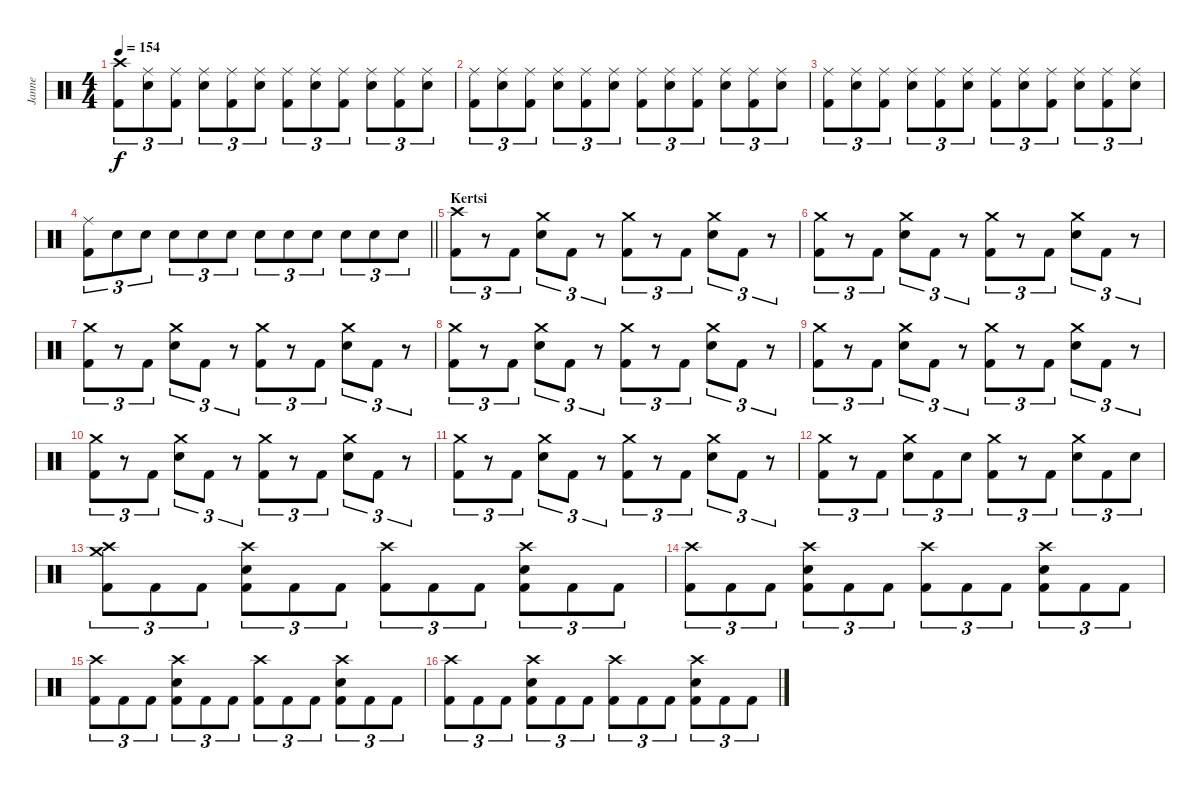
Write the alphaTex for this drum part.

\track ("Janne" "Janne") {instrument percussion}
\staff {score}
\articulation defaults
\ts (4 4)
\tempo 154
\clef neutral
\ks c
("Crash high (hit)" "Kick (hit) 2").8{tu (3 2) dy f} ("Ride (middle)" "Electric Snare (hit)").8{tu (3 2)} ("Ride (middle)" "Kick (hit) 2").8{tu (3 2)} ("Ride (middle)" "Electric Snare (hit)").8{tu (3 2)} ("Ride (middle)" "Kick (hit) 2").8{tu (3 2)} ("Ride (middle)" "Electric Snare (hit)").8{tu (3 2)} ("Ride (middle)" "Kick (hit) 2").8{tu (3 2)} ("Ride (middle)" "Electric Snare (hit)").8{tu (3 2)} ("Ride (middle)" "Kick (hit) 2").8{tu (3 2)} ("Ride (middle)" "Electric Snare (hit)").8{tu (3 2)} ("Ride (middle)" "Kick (hit) 2").8{tu (3 2)} ("Ride (middle)" "Electric Snare (hit)").8{tu (3 2)} |
("Ride (middle)" "Kick (hit) 2").8{tu (3 2)} ("Ride (middle)" "Electric Snare (hit)").8{tu (3 2)} ("Ride (middle)" "Kick (hit) 2").8{tu (3 2)} ("Ride (middle)" "Electric Snare (hit)").8{tu (3 2)} ("Ride (middle)" "Kick (hit) 2").8{tu (3 2)} ("Ride (middle)" "Electric Snare (hit)").8{tu (3 2)} ("Ride (middle)" "Kick (hit) 2").8{tu (3 2)} ("Ride (middle)" "Electric Snare (hit)").8{tu (3 2)} ("Ride (middle)" "Kick (hit) 2").8{tu (3 2)} ("Ride (middle)" "Electric Snare (hit)").8{tu (3 2)} ("Ride (middle)" "Kick (hit) 2").8{tu (3 2)} ("Ride (middle)" "Electric Snare (hit)").8{tu (3 2)} |
("Ride (middle)" "Kick (hit) 2").8{tu (3 2)} ("Ride (middle)" "Electric Snare (hit)").8{tu (3 2)} ("Ride (middle)" "Kick (hit) 2").8{tu (3 2)} ("Ride (middle)" "Electric Snare (hit)").8{tu (3 2)} ("Ride (middle)" "Kick (hit) 2").8{tu (3 2)} ("Ride (middle)" "Electric Snare (hit)").8{tu (3 2)} ("Ride (middle)" "Kick (hit) 2").8{tu (3 2)} ("Ride (middle)" "Electric Snare (hit)").8{tu (3 2)} ("Ride (middle)" "Kick (hit) 2").8{tu (3 2)} ("Ride (middle)" "Electric Snare (hit)").8{tu (3 2)} ("Ride (middle)" "Kick (hit) 2").8{tu (3 2)} ("Ride (middle)" "Electric Snare (hit)").8{tu (3 2)} |
\barLineRight lightlight
("Ride (middle)" "Kick (hit) 2").8{tu (3 2)} "Electric Snare (hit)".8{tu (3 2)} "Electric Snare (hit)".8{tu (3 2)} "Electric Snare (hit)".8{tu (3 2)} "Electric Snare (hit)".8{tu (3 2)} "Electric Snare (hit)".8{tu (3 2)} "Electric Snare (hit)".8{tu (3 2)} "Electric Snare (hit)".8{tu (3 2)} "Electric Snare (hit)".8{tu (3 2)} "Electric Snare (hit)".8{tu (3 2)} "Electric Snare (hit)".8{tu (3 2)} "Electric Snare (hit)".8{tu (3 2)} |
\section ("" "Kertsi")
("Crash high (hit)" "Kick (hit) 2").8{tu (3 2)} r.8{tu (3 2)} "Kick (hit) 2".8{tu (3 2)} ("Crash medium (hit)" "Electric Snare (hit)").8{tu (3 2)} "Kick (hit) 2".8{tu (3 2)} r.8{tu (3 2)} ("Crash medium (hit)" "Kick (hit) 2").8{tu (3 2)} r.8{tu (3 2)} "Kick (hit) 2".8{tu (3 2)} ("Crash medium (hit)" "Electric Snare (hit)").8{tu (3 2)} "Kick (hit) 2".8{tu (3 2)} r.8{tu (3 2)} |
("Crash medium (hit)" "Kick (hit) 2").8{tu (3 2)} r.8{tu (3 2)} "Kick (hit) 2".8{tu (3 2)} ("Crash medium (hit)" "Electric Snare (hit)").8{tu (3 2)} "Kick (hit) 2".8{tu (3 2)} r.8{tu (3 2)} ("Crash medium (hit)" "Kick (hit) 2").8{tu (3 2)} r.8{tu (3 2)} "Kick (hit) 2".8{tu (3 2)} ("Crash medium (hit)" "Electric Snare (hit)").8{tu (3 2)} "Kick (hit) 2".8{tu (3 2)} r.8{tu (3 2)} |
("Crash medium (hit)" "Kick (hit) 2").8{tu (3 2)} r.8{tu (3 2)} "Kick (hit) 2".8{tu (3 2)} ("Crash medium (hit)" "Electric Snare (hit)").8{tu (3 2)} "Kick (hit) 2".8{tu (3 2)} r.8{tu (3 2)} ("Crash medium (hit)" "Kick (hit) 2").8{tu (3 2)} r.8{tu (3 2)} "Kick (hit) 2".8{tu (3 2)} ("Crash medium (hit)" "Electric Snare (hit)").8{tu (3 2)} "Kick (hit) 2".8{tu (3 2)} r.8{tu (3 2)} |
("Crash medium (hit)" "Kick (hit) 2").8{tu (3 2)} r.8{tu (3 2)} "Kick (hit) 2".8{tu (3 2)} ("Crash medium (hit)" "Electric Snare (hit)").8{tu (3 2)} "Kick (hit) 2".8{tu (3 2)} r.8{tu (3 2)} ("Crash medium (hit)" "Kick (hit) 2").8{tu (3 2)} r.8{tu (3 2)} "Kick (hit) 2".8{tu (3 2)} ("Crash medium (hit)" "Electric Snare (hit)").8{tu (3 2)} "Kick (hit) 2".8{tu (3 2)} r.8{tu (3 2)} |
("Crash medium (hit)" "Kick (hit) 2").8{tu (3 2)} r.8{tu (3 2)} "Kick (hit) 2".8{tu (3 2)} ("Crash medium (hit)" "Electric Snare (hit)").8{tu (3 2)} "Kick (hit) 2".8{tu (3 2)} r.8{tu (3 2)} ("Crash medium (hit)" "Kick (hit) 2").8{tu (3 2)} r.8{tu (3 2)} "Kick (hit) 2".8{tu (3 2)} ("Crash medium (hit)" "Electric Snare (hit)").8{tu (3 2)} "Kick (hit) 2".8{tu (3 2)} r.8{tu (3 2)} |
("Crash medium (hit)" "Kick (hit) 2").8{tu (3 2)} r.8{tu (3 2)} "Kick (hit) 2".8{tu (3 2)} ("Crash medium (hit)" "Electric Snare (hit)").8{tu (3 2)} "Kick (hit) 2".8{tu (3 2)} r.8{tu (3 2)} ("Crash medium (hit)" "Kick (hit) 2").8{tu (3 2)} r.8{tu (3 2)} "Kick (hit) 2".8{tu (3 2)} ("Crash medium (hit)" "Electric Snare (hit)").8{tu (3 2)} "Kick (hit) 2".8{tu (3 2)} r.8{tu (3 2)} |
("Crash medium (hit)" "Kick (hit) 2").8{tu (3 2)} r.8{tu (3 2)} "Kick (hit) 2".8{tu (3 2)} ("Crash medium (hit)" "Electric Snare (hit)").8{tu (3 2)} "Kick (hit) 2".8{tu (3 2)} r.8{tu (3 2)} ("Crash medium (hit)" "Kick (hit) 2").8{tu (3 2)} r.8{tu (3 2)} "Kick (hit) 2".8{tu (3 2)} ("Crash medium (hit)" "Electric Snare (hit)").8{tu (3 2)} "Kick (hit) 2".8{tu (3 2)} r.8{tu (3 2)} |
("Crash medium (hit)" "Kick (hit) 2").8{tu (3 2)} r.8{tu (3 2)} "Kick (hit) 2".8{tu (3 2)} ("Crash medium (hit)" "Electric Snare (hit)").8{tu (3 2)} "Kick (hit) 2".8{tu (3 2)} "Electric Snare (hit)".8{tu (3 2)} ("Crash medium (hit)" "Kick (hit) 2").8{tu (3 2)} r.8{tu (3 2)} "Kick (hit) 2".8{tu (3 2)} ("Crash medium (hit)" "Electric Snare (hit)").8{tu (3 2)} "Kick (hit) 2".8{tu (3 2)} "Electric Snare (hit)".8{tu (3 2)} |
("Crash medium (hit)" "Crash high (hit)" "Kick (hit) 2").8{tu (3 2)} "Kick (hit) 2".8{tu (3 2)} "Kick (hit) 2".8{tu (3 2)} ("Crash high (hit)" "Electric Snare (hit)" "Kick (hit) 2").8{tu (3 2)} "Kick (hit) 2".8{tu (3 2)} "Kick (hit) 2".8{tu (3 2)} ("Crash high (hit)" "Kick (hit) 2").8{tu (3 2)} "Kick (hit) 2".8{tu (3 2)} "Kick (hit) 2".8{tu (3 2)} ("Crash high (hit)" "Electric Snare (hit)" "Kick (hit) 2").8{tu (3 2)} "Kick (hit) 2".8{tu (3 2)} "Kick (hit) 2".8{tu (3 2)} |
("Crash high (hit)" "Kick (hit) 2").8{tu (3 2)} "Kick (hit) 2".8{tu (3 2)} "Kick (hit) 2".8{tu (3 2)} ("Crash high (hit)" "Electric Snare (hit)" "Kick (hit) 2").8{tu (3 2)} "Kick (hit) 2".8{tu (3 2)} "Kick (hit) 2".8{tu (3 2)} ("Crash high (hit)" "Kick (hit) 2").8{tu (3 2)} "Kick (hit) 2".8{tu (3 2)} "Kick (hit) 2".8{tu (3 2)} ("Crash high (hit)" "Electric Snare (hit)" "Kick (hit) 2").8{tu (3 2)} "Kick (hit) 2".8{tu (3 2)} "Kick (hit) 2".8{tu (3 2)} |
("Crash high (hit)" "Kick (hit) 2").8{tu (3 2)} "Kick (hit) 2".8{tu (3 2)} "Kick (hit) 2".8{tu (3 2)} ("Crash high (hit)" "Electric Snare (hit)" "Kick (hit) 2").8{tu (3 2)} "Kick (hit) 2".8{tu (3 2)} "Kick (hit) 2".8{tu (3 2)} ("Crash high (hit)" "Kick (hit) 2").8{tu (3 2)} "Kick (hit) 2".8{tu (3 2)} "Kick (hit) 2".8{tu (3 2)} ("Crash high (hit)" "Electric Snare (hit)" "Kick (hit) 2").8{tu (3 2)} "Kick (hit) 2".8{tu (3 2)} "Kick (hit) 2".8{tu (3 2)} |
("Crash high (hit)" "Kick (hit) 2").8{tu (3 2)} "Kick (hit) 2".8{tu (3 2)} "Kick (hit) 2".8{tu (3 2)} ("Crash high (hit)" "Electric Snare (hit)" "Kick (hit) 2").8{tu (3 2)} "Kick (hit) 2".8{tu (3 2)} "Kick (hit) 2".8{tu (3 2)} ("Crash high (hit)" "Kick (hit) 2").8{tu (3 2)} "Kick (hit) 2".8{tu (3 2)} "Kick (hit) 2".8{tu (3 2)} ("Crash high (hit)" "Electric Snare (hit)" "Kick (hit) 2").8{tu (3 2)} "Kick (hit) 2".8{tu (3 2)} "Kick (hit) 2".8{tu (3 2)}
